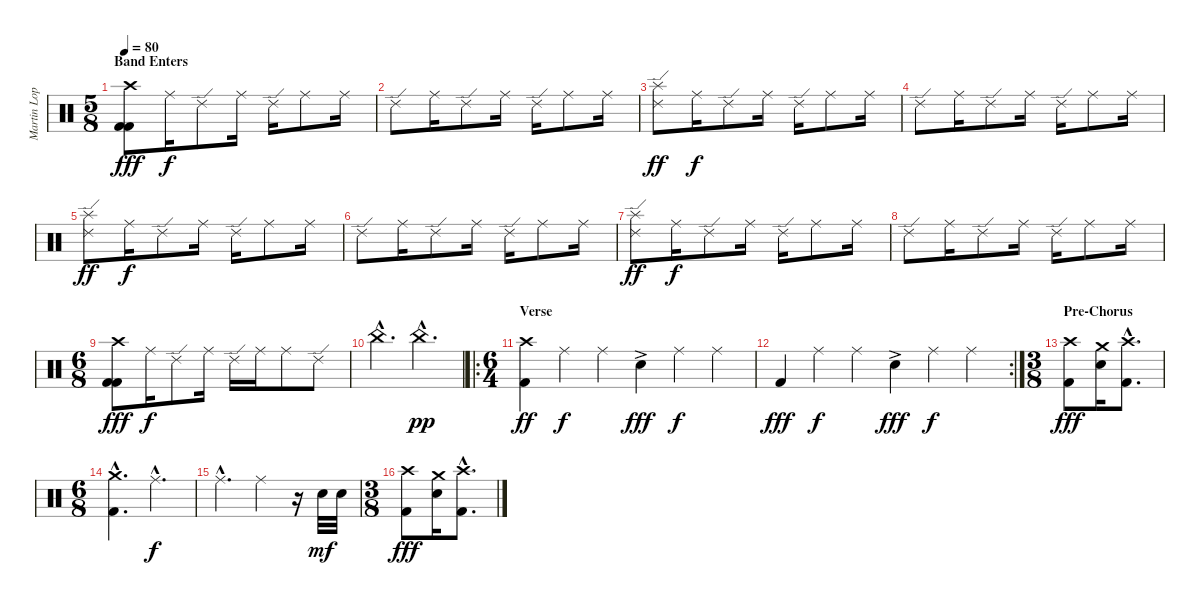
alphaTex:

\track ("Martin Lopez" "Martin Lop") {instrument percussion}
\staff {score}
\articulation defaults
\ts (5 8)
\section ("" "Band Enters")
\tempo 80
\clef neutral
\ks c
("Crash high (hit)" "Kick (hit) 2" "Kick (hit) 2").8{dy fff} "Ride (middle)".16{dy f} "Ride (edge) 2".8 "Ride (middle)".16 "Ride (edge) 2".16 "Ride (middle)".8 "Ride (middle)".16 |
"Ride (edge) 2".8 "Ride (middle)".16 "Ride (edge) 2".8 "Ride (middle)".16 "Ride (edge) 2".16 "Ride (middle)".8 "Ride (middle)".16 |
("Ride (edge) 2" "Splash (hit)").8{dy ff} "Ride (middle)".16{dy f} "Ride (edge) 2".8 "Ride (middle)".16 "Ride (edge) 2".16 "Ride (middle)".8 "Ride (middle)".16 |
"Ride (edge) 2".8 "Ride (middle)".16 "Ride (edge) 2".8 "Ride (middle)".16 "Ride (edge) 2".16 "Ride (middle)".8 "Ride (middle)".16 |
("Ride (edge) 2" "Splash (hit)").8{dy ff} "Ride (middle)".16{dy f} "Ride (edge) 2".8 "Ride (middle)".16 "Ride (edge) 2".16 "Ride (middle)".8 "Ride (middle)".16 |
"Ride (edge) 2".8 "Ride (middle)".16 "Ride (edge) 2".8 "Ride (middle)".16 "Ride (edge) 2".16 "Ride (middle)".8 "Ride (middle)".16 |
("Ride (edge) 2" "Splash (hit)").8{dy ff} "Ride (middle)".16{dy f} "Ride (edge) 2".8 "Ride (middle)".16 "Ride (edge) 2".16 "Ride (middle)".8 "Ride (middle)".16 |
"Ride (edge) 2".8 "Ride (middle)".16 "Ride (edge) 2".8 "Ride (middle)".16 "Ride (edge) 2".16 "Ride (middle)".8 "Ride (middle)".16 |
\ts (6 8)
("Crash high (hit)" "Kick (hit) 2" "Kick (hit) 2").8{dy fff} "Ride (middle)".16{dy f} "Ride (edge) 2".8 "Ride (middle)".16 "Ride (edge) 2".16 "Ride (middle)".16 "Ride (middle)".8 "Ride (edge) 2".8 |
"China (hit)"{hac}.4{d} "China (hit)"{hac}.4{d dy pp} |
\ro
\ts (6 4)
\section ("" "Verse")
("Crash high (hit)" "Kick (hit) 2").4{dy ff} "Ride (middle)".4{dy f} "Ride (middle)".4 "Electric Snare (hit)"{ac}.4{dy fff} "Ride (middle)".4{dy f} "Ride (middle)".4 |
\rc 2 "Kick (hit) 2".4{dy fff} "Ride (middle)".4{dy f} "Ride (middle)".4 "Electric Snare (hit)"{ac}.4{dy fff} "Ride (middle)".4{dy f} "Ride (middle)".4
|
\ts (3 8)
\section ("" "Pre-Chorus")
("Crash high (hit)" "Kick (hit) 2").8{dy fff} ("Crash medium (hit)" "Electric Snare (hit)").16 ("Crash high (hit)"{hac} "Kick (hit) 2"{hac}).8{d} |
\ts (6 8)
("Crash medium (hit)"{hac} "Kick (hit) 2"{hac}).4{d} "Ride (middle)"{hac}.4{d dy f} |
"Ride (middle)"{hac}.4{d} "Ride (middle)".4 r.16 "Electric Snare (hit)".32{dy mf} "Electric Snare (hit)".32 |
\ts (3 8)
("Crash high (hit)" "Kick (hit) 2").8{dy fff} ("Crash medium (hit)" "Electric Snare (hit)").16 ("Crash high (hit)"{hac} "Kick (hit) 2"{hac}).8{d}
